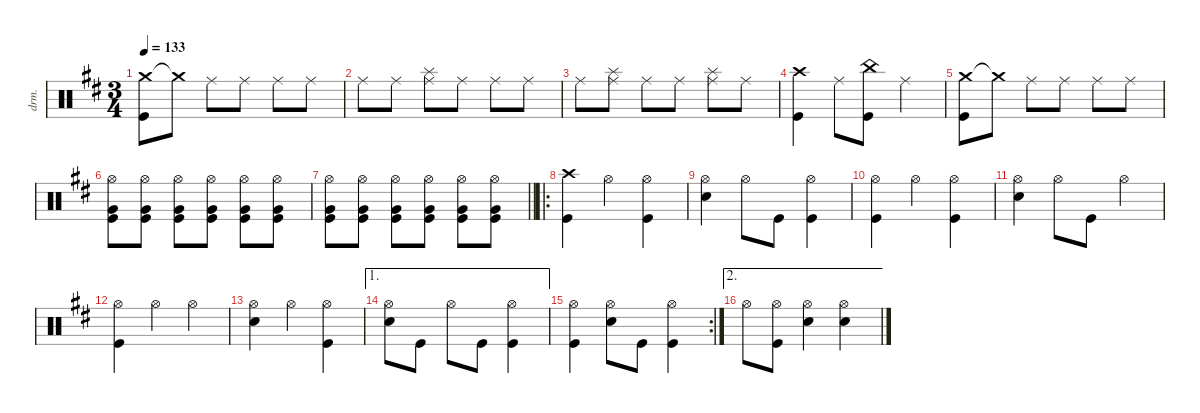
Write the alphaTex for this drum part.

\defaultSystemsLayout 4
\hideDynamics
\bracketExtendMode nobrackets
\otherSystemsTrackNameOrientation horizontal
\track ("Drums" "drm.") {defaultSystemsLayout 4 instrument percussion}
\staff {score}
\articulation defaults
\ts (3 4)
\tempo 133
\clef neutral
\ks bminor
("Crash medium (hit)"{acc forcenatural} "Kick (hit)"{acc forcenatural}).8{dy mp beam Down} "Crash medium (hit)"{t acc forcenatural}.8{dy f beam Down} "Ride (middle)"{acc forcenatural}.8{beam Down} "Ride (middle)"{acc forcenatural}.8{dy pp beam Down} "Ride (middle)"{acc forcenatural}.8{dy p beam Down} "Ride (middle)"{acc forcenatural}.8{dy f beam Down} |
"Ride (middle)"{acc forcenatural}.8{dy p beam Down} "Ride (middle)"{acc forcenatural}.8{dy pp beam Down} ("Ride (middle)"{acc forcenatural} "Splash (hit)"{acc forcenatural}).8{dy f beam Down} "Ride (middle)"{acc forcenatural}.8{dy p beam Down} "Ride (middle)"{acc forcenatural}.8{dy mp beam Down} "Ride (middle)"{acc forcenatural}.8{dy mf beam Down} |
"Ride (middle)"{acc forcenatural}.8{dy mp beam Down} ("Ride (middle)"{acc forcenatural} "Splash (hit)"{acc forcenatural}).8{dy f beam Down} "Ride (middle)"{acc forcenatural}.8{dy mp beam Down} "Ride (middle)"{acc forcenatural}.8{dy p beam Down} ("Ride (middle)"{acc forcenatural} "Splash (hit)"{acc forcenatural}).8{dy f beam Down} "Ride (middle)"{acc forcenatural}.8{beam Down} |
("Crash high (hit)"{acc forcenatural} "Kick (hit)"{acc forcenatural}).4{dy p beam Down} "Ride (middle)"{acc forcenatural}.8{dy f beam Down} ("China (hit)"{acc forcenatural} "Kick (hit)"{acc forcenatural}).8{dy mf beam Down} "Ride (middle)"{acc forcenatural}.4{dy f beam Down} |
("Crash medium (hit)"{acc forcenatural} "Kick (hit)"{acc forcenatural}).8{dy mp beam Down} "Crash medium (hit)"{t acc forcenatural}.8{dy f beam Down} "Ride (middle)"{acc forcenatural}.8{beam Down} "Ride (middle)"{acc forcenatural}.8{dy pp beam Down} "Ride (middle)"{acc forcenatural}.8{dy p beam Down} "Ride (middle)"{acc forcenatural}.8{dy f beam Down} |
("Very Low Tom (hit)"{acc forcenatural} "Hi-Hat (open)"{acc forcenatural} "Kick (hit)"{acc forcenatural}).8{dy ppp beam Down} ("Very Low Tom (hit)"{acc forcenatural} "Hi-Hat (open)"{acc forcenatural} "Kick (hit)"{acc forcenatural}).8{beam Down} ("Very Low Tom (hit)"{acc forcenatural} "Hi-Hat (open)"{acc forcenatural} "Kick (hit)"{acc forcenatural}).8{dy pp beam Down} ("Very Low Tom (hit)"{acc forcenatural} "Hi-Hat (open)"{acc forcenatural} "Kick (hit)"{acc forcenatural}).8{beam Down} ("Very Low Tom (hit)"{acc forcenatural} "Hi-Hat (open)"{acc forcenatural} "Kick (hit)"{acc forcenatural}).8{dy p beam Down} ("Very Low Tom (hit)"{acc forcenatural} "Hi-Hat (open)"{acc forcenatural} "Kick (hit)"{acc forcenatural}).8{beam Down} |
\barLineRight lightlight
("Very Low Tom (hit)"{acc forcenatural} "Hi-Hat (open)"{acc forcenatural} "Kick (hit)"{acc forcenatural}).8{dy mp beam Down} ("Very Low Tom (hit)"{acc forcenatural} "Hi-Hat (open)"{acc forcenatural} "Kick (hit)"{acc forcenatural}).8{beam Down} ("Very Low Tom (hit)"{acc forcenatural} "Hi-Hat (open)"{acc forcenatural} "Kick (hit)"{acc forcenatural}).8{dy mf beam Down} ("Very Low Tom (hit)"{acc forcenatural} "Hi-Hat (open)"{acc forcenatural} "Kick (hit)"{acc forcenatural}).8{beam Down} ("Very Low Tom (hit)"{acc forcenatural} "Hi-Hat (open)"{acc forcenatural} "Kick (hit)"{acc forcenatural}).8{dy f beam Down} ("Very Low Tom (hit)"{acc forcenatural} "Hi-Hat (open)"{acc forcenatural} "Kick (hit)"{acc forcenatural}).8{dy ff beam Down} |
\ro
("Crash high (hit)"{acc forcenatural} "Kick (hit)"{acc forcenatural}).4{dy f beam Down} "Hi-Hat (open)"{acc forcenatural}.4{beam Down} ("Hi-Hat (open)"{acc forcenatural} "Kick (hit)"{acc forcenatural}).4{beam Down} |
("Hi-Hat (open)"{acc forcenatural} "Snare (hit) 2"{acc forcenatural}).4{beam Down} "Hi-Hat (open)"{acc forcenatural}.8{beam Down} "Kick (hit)"{acc forcenatural}.8{beam Down} ("Hi-Hat (open)"{acc forcenatural} "Kick (hit)"{acc forcenatural}).4{beam Down} |
("Hi-Hat (open)"{acc forcenatural} "Kick (hit)"{acc forcenatural}).4{beam Down} "Hi-Hat (open)"{acc forcenatural}.4{beam Down} ("Hi-Hat (open)"{acc forcenatural} "Kick (hit)"{acc forcenatural}).4{beam Down} |
("Hi-Hat (open)"{acc forcenatural} "Snare (hit) 2"{acc forcenatural}).4{beam Down} "Hi-Hat (open)"{acc forcenatural}.8{beam Down} "Kick (hit)"{acc forcenatural}.8{beam Down} "Hi-Hat (open)"{acc forcenatural}.4{beam Down} |
("Hi-Hat (open)"{acc forcenatural} "Kick (hit)"{acc forcenatural}).4{beam Down} "Hi-Hat (open)"{acc forcenatural}.4{beam Down} "Hi-Hat (open)"{acc forcenatural}.4{beam Down} |
("Hi-Hat (open)"{acc forcenatural} "Snare (hit) 2"{acc forcenatural}).4{beam Down} "Hi-Hat (open)"{acc forcenatural}.4{beam Down} ("Hi-Hat (open)"{acc forcenatural} "Kick (hit)"{acc forcenatural}).4{beam Down} |
\ae 1
("Hi-Hat (open)"{acc forcenatural} "Snare (hit) 2"{acc forcenatural}).8{beam Down} "Kick (hit)"{acc forcenatural}.8{beam Down} "Hi-Hat (open)"{acc forcenatural}.8{beam Down} "Kick (hit)"{acc forcenatural}.8{beam Down} ("Hi-Hat (open)"{acc forcenatural} "Kick (hit)"{acc forcenatural}).4{beam Down} |
\rc 2
("Hi-Hat (open)"{acc forcenatural} "Kick (hit)"{acc forcenatural}).4{beam Down} ("Hi-Hat (open)"{acc forcenatural} "Snare (hit) 2"{acc forcenatural}).8{beam Down} "Kick (hit)"{acc forcenatural}.8{beam Down} ("Hi-Hat (open)"{acc forcenatural} "Kick (hit)"{acc forcenatural}).4{beam Down} |
\ae 2 "Hi-Hat (open)"{acc forcenatural}.8{beam Down}
("Hi-Hat (open)"{acc forcenatural} "Kick (hit)"{acc forcenatural}).8{beam Down} ("Hi-Hat (open)"{acc forcenatural} "Snare (hit) 2"{acc forcenatural}).4{beam Down} ("Hi-Hat (open)"{acc forcenatural} "Snare (hit) 2"{acc forcenatural}).4{beam Down}
